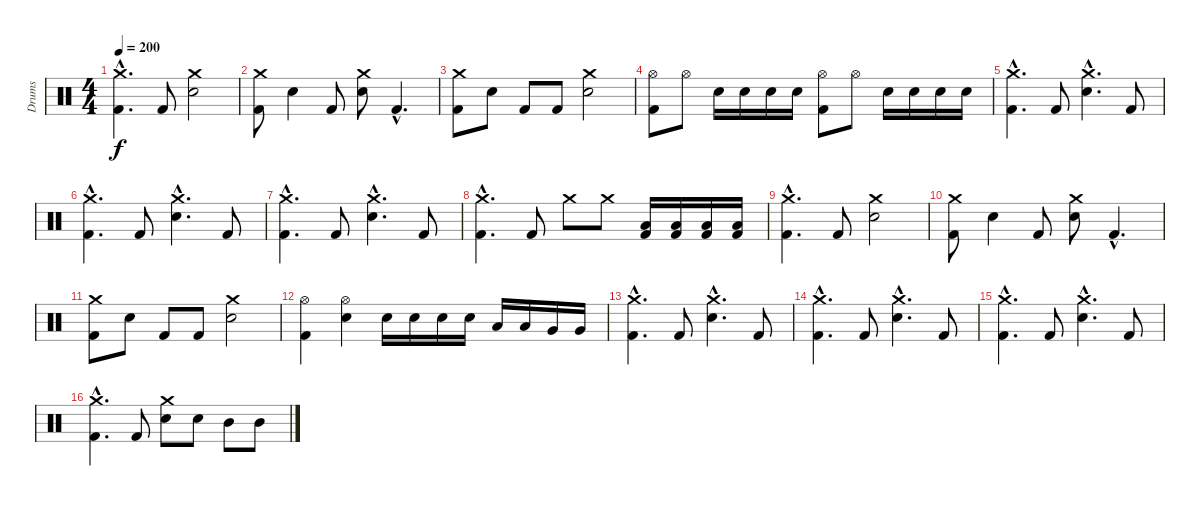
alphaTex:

\track ("Drums" "Drums") {instrument percussion}
\staff {score}
\articulation defaults
\ts (4 4)
\tempo 200
\clef neutral
\ks c
("Crash medium (hit)"{hac} "Kick (hit) 2"{hac}).4{d dy f} "Kick (hit) 2".8 ("Crash medium (hit)" "Electric Snare (hit)").2 |
("Crash medium (hit)" "Kick (hit) 2").8 "Electric Snare (hit)".4 "Kick (hit) 2".8 ("Crash medium (hit)" "Electric Snare (hit)").8 "Kick (hit) 2"{hac}.4{d} |
("Crash medium (hit)" "Kick (hit) 2").8 "Electric Snare (hit)".8 "Kick (hit) 2".8 "Kick (hit) 2".8 ("Crash medium (hit)" "Electric Snare (hit)").2 |
("Hi-Hat (open)" "Kick (hit) 2").8 "Hi-Hat (open)".8 "Electric Snare (hit)".16 "Electric Snare (hit)".16 "Electric Snare (hit)".16 "Electric Snare (hit)".16 ("Hi-Hat (open)" "Kick (hit) 2").8 "Hi-Hat (open)".8 "Electric Snare (hit)".16 "Electric Snare (hit)".16 "Electric Snare (hit)".16 "Electric Snare (hit)".16 |
("Crash medium (hit)"{hac} "Kick (hit) 2"{hac}).4{d} "Kick (hit) 2".8 ("Crash medium (hit)"{hac} "Electric Snare (hit)"{hac}).4{d} "Kick (hit) 2".8 |
("Crash medium (hit)"{hac} "Kick (hit) 2"{hac}).4{d} "Kick (hit) 2".8 ("Crash medium (hit)"{hac} "Electric Snare (hit)"{hac}).4{d} "Kick (hit) 2".8 |
("Crash medium (hit)"{hac} "Kick (hit) 2"{hac}).4{d} "Kick (hit) 2".8 ("Crash medium (hit)"{hac} "Electric Snare (hit)"{hac}).4{d} "Kick (hit) 2".8 |
("Crash medium (hit)"{hac} "Kick (hit) 2"{hac}).4{d} "Kick (hit) 2".8 "Crash medium (hit)".8 "Crash medium (hit)".8 ("Low Floor Tom (hit)" "Kick (hit) 2").16 ("Low Floor Tom (hit)" "Kick (hit) 2").16 ("Low Floor Tom (hit)" "Kick (hit) 2").16 ("Low Floor Tom (hit)" "Kick (hit) 2").16 |
("Crash medium (hit)"{hac} "Kick (hit) 2"{hac}).4{d} "Kick (hit) 2".8 ("Crash medium (hit)" "Electric Snare (hit)").2 |
("Crash medium (hit)" "Kick (hit) 2").8 "Electric Snare (hit)".4 "Kick (hit) 2".8 ("Crash medium (hit)" "Electric Snare (hit)").8 "Kick (hit) 2"{hac}.4{d} |
("Crash medium (hit)" "Kick (hit) 2").8 "Electric Snare (hit)".8 "Kick (hit) 2".8 "Kick (hit) 2".8 ("Crash medium (hit)" "Electric Snare (hit)").2 |
("Hi-Hat (open)" "Kick (hit) 2").4 ("Hi-Hat (open)" "Electric Snare (hit)").4 "Electric Snare (hit)".16 "Electric Snare (hit)".16 "Electric Snare (hit)".16 "Electric Snare (hit)".16 "Low Tom (hit)".16 "Low Tom (hit)".16 "Very Low Tom (hit)".16 "Very Low Tom (hit)".16 |
("Crash medium (hit)"{hac} "Kick (hit) 2"{hac}).4{d} "Kick (hit) 2".8 ("Crash medium (hit)"{hac} "Electric Snare (hit)"{hac}).4{d} "Kick (hit) 2".8 |
("Crash medium (hit)"{hac} "Kick (hit) 2"{hac}).4{d} "Kick (hit) 2".8 ("Crash medium (hit)"{hac} "Electric Snare (hit)"{hac}).4{d} "Kick (hit) 2".8 |
("Crash medium (hit)"{hac} "Kick (hit) 2"{hac}).4{d} "Kick (hit) 2".8 ("Crash medium (hit)"{hac} "Electric Snare (hit)"{hac}).4{d} "Kick (hit) 2".8 |
("Crash medium (hit)"{hac} "Kick (hit) 2"{hac}).4{d} "Kick (hit) 2".8 ("Crash medium (hit)" "Electric Snare (hit)").8 "Electric Snare (hit)".8 "Mid Tom (hit)".8 "Mid Tom (hit)".8
